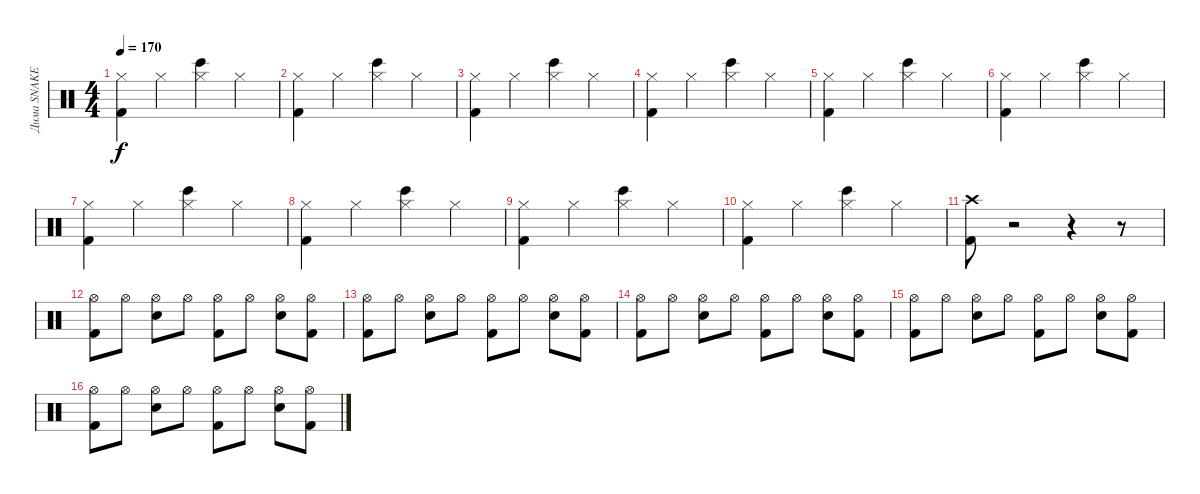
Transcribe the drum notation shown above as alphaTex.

\track ("Дима SNAKE" "Дима SNAKE") {instrument percussion}
\staff {score}
\articulation defaults
\ts (4 4)
\tempo 170
\clef neutral
\ks c
("Hi-Hat (closed)" "Kick (hit) 2").4{dy f} "Hi-Hat (closed)".4 ("Hi-Hat (closed)" "Bongo High (hit)").4 "Hi-Hat (closed)".4 |
("Hi-Hat (closed)" "Kick (hit) 2").4 "Hi-Hat (closed)".4 ("Hi-Hat (closed)" "Bongo High (hit)").4 "Hi-Hat (closed)".4 |
("Hi-Hat (closed)" "Kick (hit) 2").4 "Hi-Hat (closed)".4 ("Hi-Hat (closed)" "Bongo High (hit)").4 "Hi-Hat (closed)".4 |
("Hi-Hat (closed)" "Kick (hit) 2").4 "Hi-Hat (closed)".4 ("Hi-Hat (closed)" "Bongo High (hit)").4 "Hi-Hat (closed)".4 |
("Hi-Hat (closed)" "Kick (hit) 2").4 "Hi-Hat (closed)".4 ("Hi-Hat (closed)" "Bongo High (hit)").4 "Hi-Hat (closed)".4 |
("Hi-Hat (closed)" "Kick (hit) 2").4 "Hi-Hat (closed)".4 ("Hi-Hat (closed)" "Bongo High (hit)").4 "Hi-Hat (closed)".4 |
("Hi-Hat (closed)" "Kick (hit) 2").4 "Hi-Hat (closed)".4 ("Hi-Hat (closed)" "Bongo High (hit)").4 "Hi-Hat (closed)".4 |
("Hi-Hat (closed)" "Kick (hit) 2").4 "Hi-Hat (closed)".4 ("Hi-Hat (closed)" "Bongo High (hit)").4 "Hi-Hat (closed)".4 |
("Hi-Hat (closed)" "Kick (hit) 2").4 "Hi-Hat (closed)".4 ("Hi-Hat (closed)" "Bongo High (hit)").4 "Hi-Hat (closed)".4 |
("Hi-Hat (closed)" "Kick (hit) 2").4 "Hi-Hat (closed)".4 ("Hi-Hat (closed)" "Bongo High (hit)").4 "Hi-Hat (closed)".4 |
("Crash high (hit)" "Kick (hit) 2").8 r.2 r.4 r.8 |
("Hi-Hat (open)" "Kick (hit) 2").8 "Hi-Hat (open)".8 ("Hi-Hat (open)" "Snare (hit) 2").8 "Hi-Hat (open)".8 ("Hi-Hat (open)" "Kick (hit) 2").8 "Hi-Hat (open)".8 ("Hi-Hat (open)" "Snare (hit) 2").8 ("Hi-Hat (open)" "Kick (hit) 2").8 |
("Hi-Hat (open)" "Kick (hit) 2").8 "Hi-Hat (open)".8 ("Hi-Hat (open)" "Snare (hit) 2").8 "Hi-Hat (open)".8 ("Hi-Hat (open)" "Kick (hit) 2").8 "Hi-Hat (open)".8 ("Hi-Hat (open)" "Snare (hit) 2").8 ("Hi-Hat (open)" "Kick (hit) 2").8 |
("Hi-Hat (open)" "Kick (hit) 2").8 "Hi-Hat (open)".8 ("Hi-Hat (open)" "Snare (hit) 2").8 "Hi-Hat (open)".8 ("Hi-Hat (open)" "Kick (hit) 2").8 "Hi-Hat (open)".8 ("Hi-Hat (open)" "Snare (hit) 2").8 ("Hi-Hat (open)" "Kick (hit) 2").8 |
("Hi-Hat (open)" "Kick (hit) 2").8 "Hi-Hat (open)".8 ("Hi-Hat (open)" "Snare (hit) 2").8 "Hi-Hat (open)".8 ("Hi-Hat (open)" "Kick (hit) 2").8 "Hi-Hat (open)".8 ("Hi-Hat (open)" "Snare (hit) 2").8 ("Hi-Hat (open)" "Kick (hit) 2").8 |
("Hi-Hat (open)" "Kick (hit) 2").8 "Hi-Hat (open)".8 ("Hi-Hat (open)" "Snare (hit) 2").8 "Hi-Hat (open)".8 ("Hi-Hat (open)" "Kick (hit) 2").8 "Hi-Hat (open)".8 ("Hi-Hat (open)" "Snare (hit) 2").8 ("Hi-Hat (open)" "Kick (hit) 2").8
